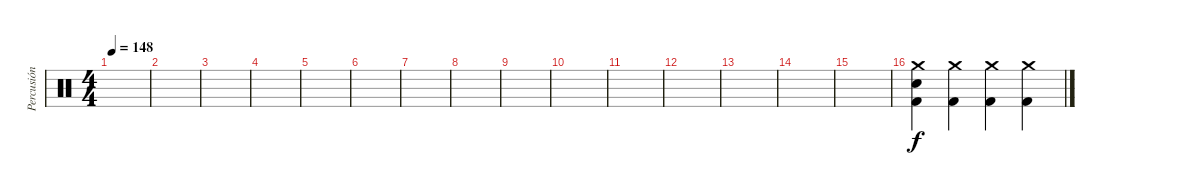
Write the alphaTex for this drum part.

\track ("Percusión" "Percusión") {instrument percussion}
\staff {score}
\articulation defaults
\ts (4 4)
\tempo 148
\clef neutral
\ks c
|
|
|
|
|
|
|
|
|
|
|
|
|
|
|
("Crash medium (hit)" "Snare (hit) 2" "Kick (hit) 2").4 ("Crash medium (hit)" "Kick (hit) 2").4 ("Crash medium (hit)" "Kick (hit) 2").4 ("Crash medium (hit)" "Kick (hit) 2").4
